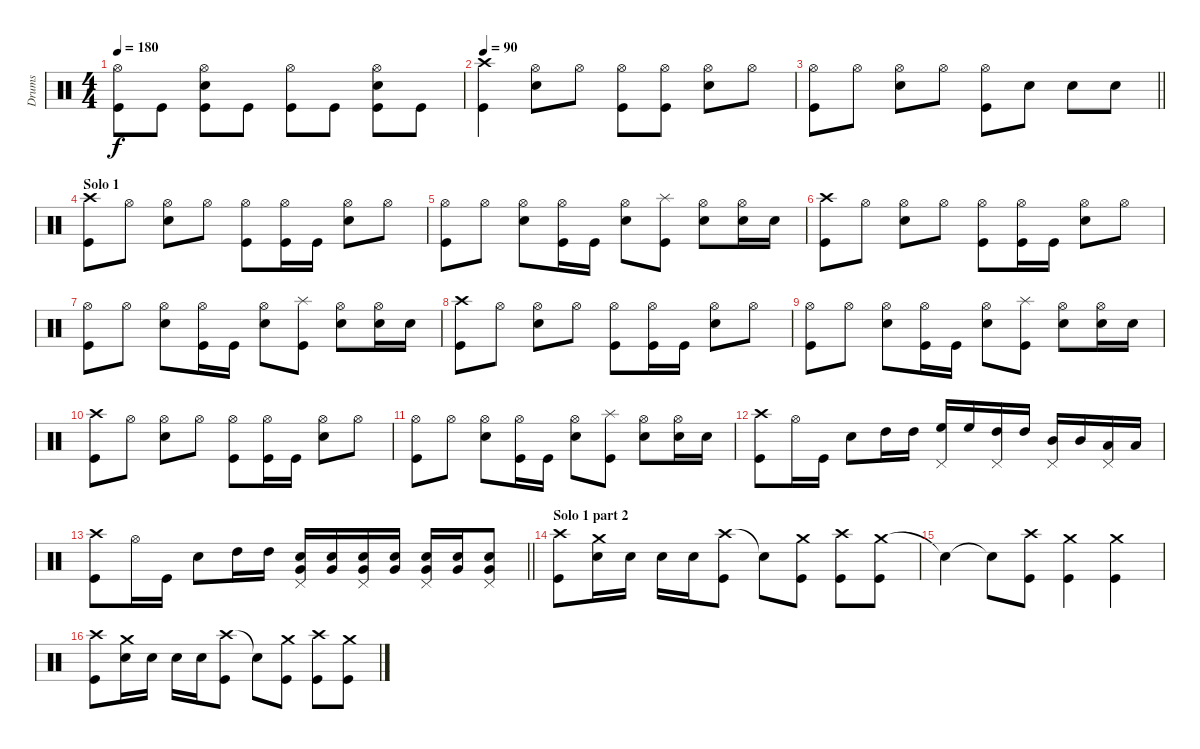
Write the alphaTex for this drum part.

\track ("Drums" "Drums") {instrument percussion}
\staff {score}
\articulation defaults
\ts (4 4)
\tempo 180
\clef neutral
\ks c
("Hi-Hat (open)" "Kick (hit)").8{dy f} "Kick (hit)".8 ("Hi-Hat (open)" "Electric Snare (hit)" "Kick (hit)").8 "Kick (hit)".8 ("Hi-Hat (open)" "Kick (hit)").8 "Kick (hit)".8 ("Hi-Hat (open)" "Electric Snare (hit)" "Kick (hit)").8 "Kick (hit)".8 |
\tempo 90
("Crash high (hit)" "Kick (hit)").4 ("Hi-Hat (open)" "Electric Snare (hit)").8 "Hi-Hat (open)".8 ("Hi-Hat (open)" "Kick (hit)").8 ("Hi-Hat (open)" "Kick (hit)").8 ("Hi-Hat (open)" "Electric Snare (hit)").8 "Hi-Hat (open)".8 |
\barLineRight lightlight
("Hi-Hat (open)" "Kick (hit)").8 "Hi-Hat (open)".8 ("Hi-Hat (open)" "Electric Snare (hit)").8 "Hi-Hat (open)".8 ("Hi-Hat (open)" "Kick (hit)").8 "Electric Snare (hit)".8 "Electric Snare (hit)".8 "Electric Snare (hit)".8 |
\section ("" "Solo 1")
("Crash high (hit)" "Kick (hit)").8 "Hi-Hat (open)".8 ("Hi-Hat (open)" "Electric Snare (hit)").8 "Hi-Hat (open)".8 ("Hi-Hat (open)" "Kick (hit)").8 ("Hi-Hat (open)" "Kick (hit)").16 "Kick (hit)".16 ("Hi-Hat (open)" "Electric Snare (hit)").8 "Hi-Hat (open)".8 |
("Hi-Hat (open)" "Kick (hit)").8 "Hi-Hat (open)".8 ("Hi-Hat (open)" "Electric Snare (hit)").8 ("Hi-Hat (open)" "Kick (hit)").16 "Kick (hit)".16 ("Hi-Hat (open)" "Electric Snare (hit)").8 ("Splash (hit)" "Kick (hit)").8 ("Hi-Hat (open)" "Electric Snare (hit)").8 ("Hi-Hat (open)" "Electric Snare (hit)").16 "Electric Snare (hit)".16 |
("Crash high (hit)" "Kick (hit)").8 "Hi-Hat (open)".8 ("Hi-Hat (open)" "Electric Snare (hit)").8 "Hi-Hat (open)".8 ("Hi-Hat (open)" "Kick (hit)").8 ("Hi-Hat (open)" "Kick (hit)").16 "Kick (hit)".16 ("Hi-Hat (open)" "Electric Snare (hit)").8 "Hi-Hat (open)".8 |
("Hi-Hat (open)" "Kick (hit)").8 "Hi-Hat (open)".8 ("Hi-Hat (open)" "Electric Snare (hit)").8 ("Hi-Hat (open)" "Kick (hit)").16 "Kick (hit)".16 ("Hi-Hat (open)" "Electric Snare (hit)").8 ("Splash (hit)" "Kick (hit)").8 ("Hi-Hat (open)" "Electric Snare (hit)").8 ("Hi-Hat (open)" "Electric Snare (hit)").16 "Electric Snare (hit)".16 |
("Crash high (hit)" "Kick (hit)").8 "Hi-Hat (open)".8 ("Hi-Hat (open)" "Electric Snare (hit)").8 "Hi-Hat (open)".8 ("Hi-Hat (open)" "Kick (hit)").8 ("Hi-Hat (open)" "Kick (hit)").16 "Kick (hit)".16 ("Hi-Hat (open)" "Electric Snare (hit)").8 "Hi-Hat (open)".8 |
("Hi-Hat (open)" "Kick (hit)").8 "Hi-Hat (open)".8 ("Hi-Hat (open)" "Electric Snare (hit)").8 ("Hi-Hat (open)" "Kick (hit)").16 "Kick (hit)".16 ("Hi-Hat (open)" "Electric Snare (hit)").8 ("Splash (hit)" "Kick (hit)").8 ("Hi-Hat (open)" "Electric Snare (hit)").8 ("Hi-Hat (open)" "Electric Snare (hit)").16 "Electric Snare (hit)".16 |
("Crash high (hit)" "Kick (hit)").8 "Hi-Hat (open)".8 ("Hi-Hat (open)" "Electric Snare (hit)").8 "Hi-Hat (open)".8 ("Hi-Hat (open)" "Kick (hit)").8 ("Hi-Hat (open)" "Kick (hit)").16 "Kick (hit)".16 ("Hi-Hat (open)" "Electric Snare (hit)").8 "Hi-Hat (open)".8 |
("Hi-Hat (open)" "Kick (hit)").8 "Hi-Hat (open)".8 ("Hi-Hat (open)" "Electric Snare (hit)").8 ("Hi-Hat (open)" "Kick (hit)").16 "Kick (hit)".16 ("Hi-Hat (open)" "Electric Snare (hit)").8 ("Splash (hit)" "Kick (hit)").8 ("Hi-Hat (open)" "Electric Snare (hit)").8 ("Hi-Hat (open)" "Electric Snare (hit)").16 "Electric Snare (hit)".16 |
("Crash high (hit)" "Kick (hit)").8 "Hi-Hat (open)".16 "Kick (hit)".16 "Electric Snare (hit)".8 "High Tom (hit)".16 "High Tom (hit)".16 ("High Floor Tom (hit)" "Pedal Hi-Hat (hit)").16 "High Floor Tom (hit)".16 ("High Tom (hit)" "Pedal Hi-Hat (hit)").16 "High Tom (hit)".16 ("Mid Tom (hit)" "Pedal Hi-Hat (hit)").16 "Mid Tom (hit)".16 ("Low Tom (hit)" "Pedal Hi-Hat (hit)").16 "Low Tom (hit)".16 |
\barLineRight lightlight
("Crash high (hit)" "Kick (hit)").8 "Hi-Hat (open)".16 "Kick (hit)".16 "Electric Snare (hit)".8 "High Tom (hit)".16 "High Tom (hit)".16 ("Very Low Tom (hit)" "Electric Snare (hit)" "Pedal Hi-Hat (hit)").16 ("Very Low Tom (hit)" "Electric Snare (hit)").16 ("Very Low Tom (hit)" "Electric Snare (hit)" "Pedal Hi-Hat (hit)").16 ("Very Low Tom (hit)" "Electric Snare (hit)").16 ("Very Low Tom (hit)" "Electric Snare (hit)" "Pedal Hi-Hat (hit)").16 ("Very Low Tom (hit)" "Electric Snare (hit)").16 ("Very Low Tom (hit)" "Electric Snare (hit)" "Pedal Hi-Hat (hit)").8 |
\section ("" "Solo 1 part 2")
("Crash high (hit)" "Kick (hit)").8 ("Crash medium (hit)" "Electric Snare (hit)").16 "Electric Snare (hit)".16 "Electric Snare (hit)".16 "Electric Snare (hit)".16 ("Crash high (hit)" "Kick (hit)").8 "Snare (hit)"{t}.8 ("Crash medium (hit)" "Kick (hit)").8 ("Crash high (hit)" "Kick (hit)").8 ("Crash medium (hit)" "Kick (hit)").8 |
"Snare (hit)"{t}.4 "Snare (hit)"{t}.8 ("Crash high (hit)" "Kick (hit)").8 ("Crash medium (hit)" "Kick (hit)").4 ("Crash medium (hit)" "Kick (hit)").4 |
("Crash high (hit)" "Kick (hit)").8 ("Crash medium (hit)" "Electric Snare (hit)").16 "Electric Snare (hit)".16 "Electric Snare (hit)".16 "Electric Snare (hit)".16 ("Crash high (hit)" "Kick (hit)").8 "Snare (hit)"{t}.8 ("Crash medium (hit)" "Kick (hit)").8 ("Crash high (hit)" "Kick (hit)").8 ("Crash medium (hit)" "Kick (hit)").8
